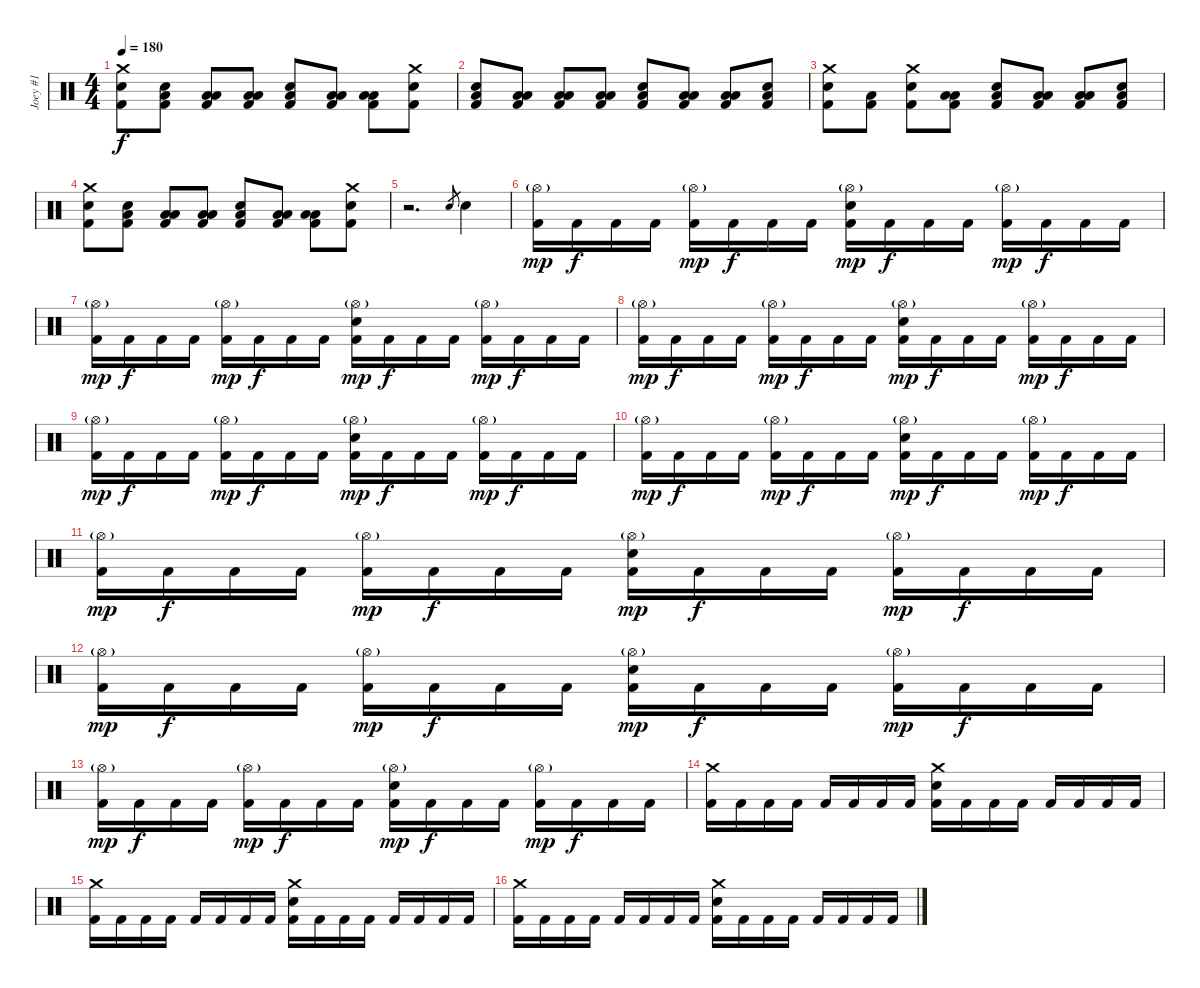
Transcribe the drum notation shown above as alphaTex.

\track ("Joey #1" "Joey #1") {instrument percussion}
\staff {score}
\articulation defaults
\ts (4 4)
\tempo 180
\clef neutral
\ks c
("Crash medium (hit)" "Electric Snare (hit)" "Kick (hit) 2").8{dy f} ("Low Tom (hit)" "Electric Snare (hit)" "Kick (hit) 2").8 ("Low Tom (hit)" "Low Floor Tom (hit)" "Kick (hit) 2").8 ("Low Tom (hit)" "Low Floor Tom (hit)" "Kick (hit) 2").8 ("Low Tom (hit)" "Electric Snare (hit)" "Kick (hit) 2").8 ("Low Tom (hit)" "Low Floor Tom (hit)" "Kick (hit) 2").8 ("Low Tom (hit)" "Low Floor Tom (hit)" "Kick (hit) 2").8 ("Crash medium (hit)" "Electric Snare (hit)" "Kick (hit) 2").8 |
("Low Tom (hit)" "Electric Snare (hit)" "Kick (hit) 2").8 ("Low Tom (hit)" "Low Floor Tom (hit)" "Kick (hit) 2").8 ("Low Tom (hit)" "Low Floor Tom (hit)" "Kick (hit) 2").8 ("Low Tom (hit)" "Low Floor Tom (hit)" "Kick (hit) 2").8 ("Low Tom (hit)" "Electric Snare (hit)" "Kick (hit) 2").8 ("Low Tom (hit)" "Low Floor Tom (hit)" "Kick (hit) 2").8 ("Low Tom (hit)" "Low Floor Tom (hit)" "Kick (hit) 2").8 ("Low Tom (hit)" "Electric Snare (hit)" "Kick (hit) 2").8 |
("Crash medium (hit)" "Electric Snare (hit)" "Kick (hit) 2").8 ("Low Floor Tom (hit)" "Kick (hit) 2").8 ("Crash medium (hit)" "Electric Snare (hit)" "Kick (hit) 2").8 ("Low Tom (hit)" "Low Floor Tom (hit)" "Kick (hit) 2").8 ("Low Tom (hit)" "Electric Snare (hit)" "Kick (hit) 2").8 ("Low Tom (hit)" "Low Floor Tom (hit)" "Kick (hit) 2").8 ("Low Tom (hit)" "Low Floor Tom (hit)" "Kick (hit) 2").8 ("Low Tom (hit)" "Electric Snare (hit)" "Kick (hit) 2").8 |
("Crash medium (hit)" "Electric Snare (hit)" "Kick (hit) 2").8 ("Low Tom (hit)" "Electric Snare (hit)" "Kick (hit) 2").8 ("Low Tom (hit)" "Low Floor Tom (hit)" "Kick (hit) 2").8 ("Low Tom (hit)" "Low Floor Tom (hit)" "Kick (hit) 2").8 ("Low Tom (hit)" "Electric Snare (hit)" "Kick (hit) 2").8 ("Low Tom (hit)" "Low Floor Tom (hit)" "Kick (hit) 2").8 ("Low Tom (hit)" "Low Floor Tom (hit)" "Kick (hit) 2").8 ("Crash medium (hit)" "Electric Snare (hit)" "Kick (hit) 2").8 |
r.2{d} "Electric Snare (hit)"{h}.8{gr} "Electric Snare (hit)".4 |
("Hi-Hat (open)"{g} "Kick (hit) 2").16{dy mp} "Kick (hit) 2".16{dy f} "Kick (hit) 2".16 "Kick (hit) 2".16 ("Hi-Hat (open)"{g} "Kick (hit) 2").16{dy mp} "Kick (hit) 2".16{dy f} "Kick (hit) 2".16 "Kick (hit) 2".16 ("Hi-Hat (open)"{g} "Electric Snare (hit)" "Kick (hit) 2").16{dy mp} "Kick (hit) 2".16{dy f} "Kick (hit) 2".16 "Kick (hit) 2".16 ("Hi-Hat (open)"{g} "Kick (hit) 2").16{dy mp} "Kick (hit) 2".16{dy f} "Kick (hit) 2".16 "Kick (hit) 2".16 |
("Hi-Hat (open)"{g} "Kick (hit) 2").16{dy mp} "Kick (hit) 2".16{dy f} "Kick (hit) 2".16 "Kick (hit) 2".16 ("Hi-Hat (open)"{g} "Kick (hit) 2").16{dy mp} "Kick (hit) 2".16{dy f} "Kick (hit) 2".16 "Kick (hit) 2".16 ("Hi-Hat (open)"{g} "Electric Snare (hit)" "Kick (hit) 2").16{dy mp} "Kick (hit) 2".16{dy f} "Kick (hit) 2".16 "Kick (hit) 2".16 ("Hi-Hat (open)"{g} "Kick (hit) 2").16{dy mp} "Kick (hit) 2".16{dy f} "Kick (hit) 2".16 "Kick (hit) 2".16 |
("Hi-Hat (open)"{g} "Kick (hit) 2").16{dy mp} "Kick (hit) 2".16{dy f} "Kick (hit) 2".16 "Kick (hit) 2".16 ("Hi-Hat (open)"{g} "Kick (hit) 2").16{dy mp} "Kick (hit) 2".16{dy f} "Kick (hit) 2".16 "Kick (hit) 2".16 ("Hi-Hat (open)"{g} "Electric Snare (hit)" "Kick (hit) 2").16{dy mp} "Kick (hit) 2".16{dy f} "Kick (hit) 2".16 "Kick (hit) 2".16 ("Hi-Hat (open)"{g} "Kick (hit) 2").16{dy mp} "Kick (hit) 2".16{dy f} "Kick (hit) 2".16 "Kick (hit) 2".16 |
("Hi-Hat (open)"{g} "Kick (hit) 2").16{dy mp} "Kick (hit) 2".16{dy f} "Kick (hit) 2".16 "Kick (hit) 2".16 ("Hi-Hat (open)"{g} "Kick (hit) 2").16{dy mp} "Kick (hit) 2".16{dy f} "Kick (hit) 2".16 "Kick (hit) 2".16 ("Hi-Hat (open)"{g} "Electric Snare (hit)" "Kick (hit) 2").16{dy mp} "Kick (hit) 2".16{dy f} "Kick (hit) 2".16 "Kick (hit) 2".16 ("Hi-Hat (open)"{g} "Kick (hit) 2").16{dy mp} "Kick (hit) 2".16{dy f} "Kick (hit) 2".16 "Kick (hit) 2".16 |
("Hi-Hat (open)"{g} "Kick (hit) 2").16{dy mp} "Kick (hit) 2".16{dy f} "Kick (hit) 2".16 "Kick (hit) 2".16 ("Hi-Hat (open)"{g} "Kick (hit) 2").16{dy mp} "Kick (hit) 2".16{dy f} "Kick (hit) 2".16 "Kick (hit) 2".16 ("Hi-Hat (open)"{g} "Electric Snare (hit)" "Kick (hit) 2").16{dy mp} "Kick (hit) 2".16{dy f} "Kick (hit) 2".16 "Kick (hit) 2".16 ("Hi-Hat (open)"{g} "Kick (hit) 2").16{dy mp} "Kick (hit) 2".16{dy f} "Kick (hit) 2".16 "Kick (hit) 2".16 |
("Hi-Hat (open)"{g} "Kick (hit) 2").16{dy mp} "Kick (hit) 2".16{dy f} "Kick (hit) 2".16 "Kick (hit) 2".16 ("Hi-Hat (open)"{g} "Kick (hit) 2").16{dy mp} "Kick (hit) 2".16{dy f} "Kick (hit) 2".16 "Kick (hit) 2".16 ("Hi-Hat (open)"{g} "Electric Snare (hit)" "Kick (hit) 2").16{dy mp} "Kick (hit) 2".16{dy f} "Kick (hit) 2".16 "Kick (hit) 2".16 ("Hi-Hat (open)"{g} "Kick (hit) 2").16{dy mp} "Kick (hit) 2".16{dy f} "Kick (hit) 2".16 "Kick (hit) 2".16 |
("Hi-Hat (open)"{g} "Kick (hit) 2").16{dy mp} "Kick (hit) 2".16{dy f} "Kick (hit) 2".16 "Kick (hit) 2".16 ("Hi-Hat (open)"{g} "Kick (hit) 2").16{dy mp} "Kick (hit) 2".16{dy f} "Kick (hit) 2".16 "Kick (hit) 2".16 ("Hi-Hat (open)"{g} "Electric Snare (hit)" "Kick (hit) 2").16{dy mp} "Kick (hit) 2".16{dy f} "Kick (hit) 2".16 "Kick (hit) 2".16 ("Hi-Hat (open)"{g} "Kick (hit) 2").16{dy mp} "Kick (hit) 2".16{dy f} "Kick (hit) 2".16 "Kick (hit) 2".16 |
("Hi-Hat (open)"{g} "Kick (hit) 2").16{dy mp} "Kick (hit) 2".16{dy f} "Kick (hit) 2".16 "Kick (hit) 2".16 ("Hi-Hat (open)"{g} "Kick (hit) 2").16{dy mp} "Kick (hit) 2".16{dy f} "Kick (hit) 2".16 "Kick (hit) 2".16 ("Hi-Hat (open)"{g} "Electric Snare (hit)" "Kick (hit) 2").16{dy mp} "Kick (hit) 2".16{dy f} "Kick (hit) 2".16 "Kick (hit) 2".16 ("Hi-Hat (open)"{g} "Kick (hit) 2").16{dy mp} "Kick (hit) 2".16{dy f} "Kick (hit) 2".16 "Kick (hit) 2".16 |
("Crash medium (hit)" "Kick (hit) 2").16 "Kick (hit) 2".16 "Kick (hit) 2".16 "Kick (hit) 2".16 "Kick (hit) 2".16 "Kick (hit) 2".16 "Kick (hit) 2".16 "Kick (hit) 2".16 ("Crash medium (hit)" "Electric Snare (hit)" "Kick (hit) 2").16 "Kick (hit) 2".16 "Kick (hit) 2".16 "Kick (hit) 2".16 "Kick (hit) 2".16 "Kick (hit) 2".16 "Kick (hit) 2".16 "Kick (hit) 2".16 |
("Crash medium (hit)" "Kick (hit) 2").16 "Kick (hit) 2".16 "Kick (hit) 2".16 "Kick (hit) 2".16 "Kick (hit) 2".16 "Kick (hit) 2".16 "Kick (hit) 2".16 "Kick (hit) 2".16 ("Crash medium (hit)" "Electric Snare (hit)" "Kick (hit) 2").16 "Kick (hit) 2".16 "Kick (hit) 2".16 "Kick (hit) 2".16 "Kick (hit) 2".16 "Kick (hit) 2".16 "Kick (hit) 2".16 "Kick (hit) 2".16 |
("Crash medium (hit)" "Kick (hit) 2").16 "Kick (hit) 2".16 "Kick (hit) 2".16 "Kick (hit) 2".16 "Kick (hit) 2".16 "Kick (hit) 2".16 "Kick (hit) 2".16 "Kick (hit) 2".16 ("Crash medium (hit)" "Electric Snare (hit)" "Kick (hit) 2").16 "Kick (hit) 2".16 "Kick (hit) 2".16 "Kick (hit) 2".16 "Kick (hit) 2".16 "Kick (hit) 2".16 "Kick (hit) 2".16 "Kick (hit) 2".16
